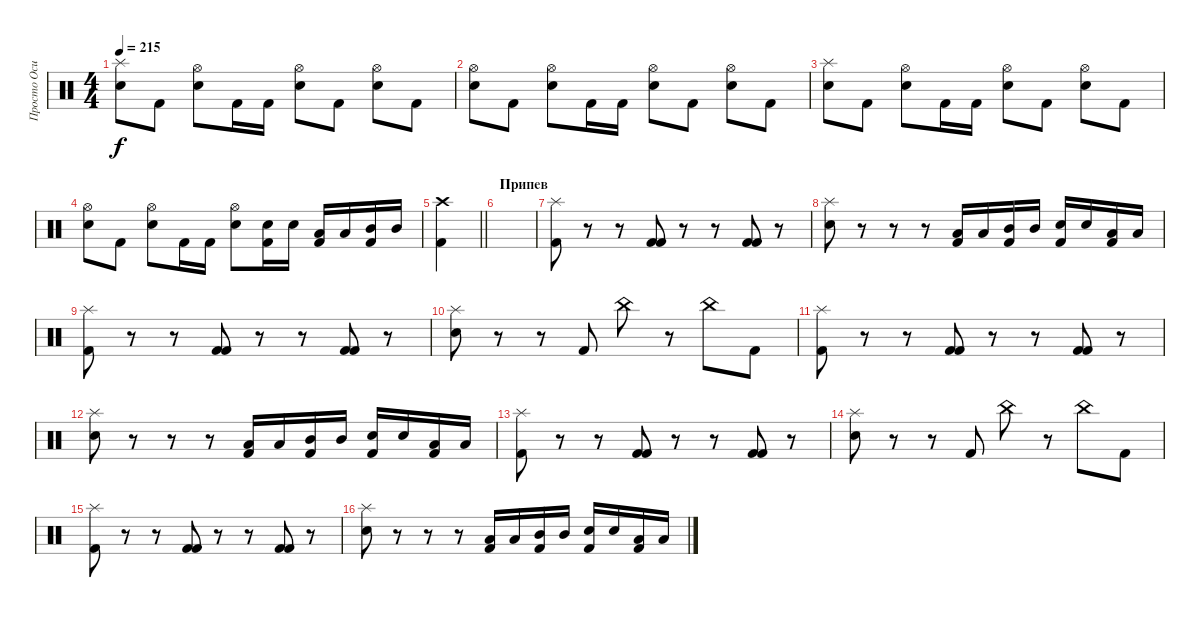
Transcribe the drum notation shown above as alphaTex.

\track ("Просто Осип" "Просто Оси") {instrument percussion}
\staff {score}
\articulation defaults
\ts (4 4)
\tempo 215
\clef neutral
\ks c
("Electric Snare (hit)" "Splash (hit)").8{dy f} "Kick (hit) 2".8 ("Electric Snare (hit)" "Hi-Hat (open)").8 "Kick (hit) 2".16 "Kick (hit) 2".16 ("Electric Snare (hit)" "Hi-Hat (open)").8 "Kick (hit) 2".8 ("Electric Snare (hit)" "Hi-Hat (open)").8 "Kick (hit) 2".8 |
("Electric Snare (hit)" "Hi-Hat (open)").8 "Kick (hit) 2".8 ("Electric Snare (hit)" "Hi-Hat (open)").8 "Kick (hit) 2".16 "Kick (hit) 2".16 ("Electric Snare (hit)" "Hi-Hat (open)").8 "Kick (hit) 2".8 ("Electric Snare (hit)" "Hi-Hat (open)").8 "Kick (hit) 2".8 |
("Electric Snare (hit)" "Splash (hit)").8 "Kick (hit) 2".8 ("Electric Snare (hit)" "Hi-Hat (open)").8 "Kick (hit) 2".16 "Kick (hit) 2".16 ("Electric Snare (hit)" "Hi-Hat (open)").8 "Kick (hit) 2".8 ("Electric Snare (hit)" "Hi-Hat (open)").8 "Kick (hit) 2".8 |
("Electric Snare (hit)" "Hi-Hat (open)").8 "Kick (hit) 2".8 ("Electric Snare (hit)" "Hi-Hat (open)").8 "Kick (hit) 2".16 "Kick (hit) 2".16 ("Electric Snare (hit)" "Hi-Hat (open)").8 ("Kick (hit) 2" "Electric Snare (hit)").16 "Electric Snare (hit)".16 ("Kick (hit) 2" "Low Tom (hit)").16 "Low Tom (hit)".16 ("Kick (hit) 2" "Mid Tom (hit)").16 "Mid Tom (hit)".16 |
\barLineRight lightlight
("Crash high (hit)" "Kick (hit) 2").4 |
\section ("" "Припев")
|
("Kick (hit) 2" "Splash (hit)").8 r.8 r.8 ("Kick (hit) 2" "Kick (hit) 2").8 r.8 r.8 ("Kick (hit) 2" "Kick (hit) 2").8 r.8 |
("Splash (hit)" "Electric Snare (hit)").8 r.8 r.8 r.8 ("Kick (hit) 2" "Low Tom (hit)").16 "Low Tom (hit)".16 ("Kick (hit) 2" "Mid Tom (hit)").16 "Mid Tom (hit)".16 ("Kick (hit) 2" "Electric Snare (hit)").16 "Electric Snare (hit)".16 ("Kick (hit) 2" "Low Tom (hit)").16 "Low Tom (hit)".16 |
("Kick (hit) 2" "Splash (hit)").8 r.8 r.8 ("Kick (hit) 2" "Kick (hit) 2").8 r.8 r.8 ("Kick (hit) 2" "Kick (hit) 2").8 r.8 |
("Splash (hit)" "Electric Snare (hit)").8 r.8 r.8 "Kick (hit) 2".8 "China (hit)".8 r.8 "China (hit)".8 "Kick (hit) 2".8 |
("Kick (hit) 2" "Splash (hit)").8 r.8 r.8 ("Kick (hit) 2" "Kick (hit) 2").8 r.8 r.8 ("Kick (hit) 2" "Kick (hit) 2").8 r.8 |
("Splash (hit)" "Electric Snare (hit)").8 r.8 r.8 r.8 ("Kick (hit) 2" "Low Tom (hit)").16 "Low Tom (hit)".16 ("Kick (hit) 2" "Mid Tom (hit)").16 "Mid Tom (hit)".16 ("Kick (hit) 2" "Electric Snare (hit)").16 "Electric Snare (hit)".16 ("Kick (hit) 2" "Low Tom (hit)").16 "Low Tom (hit)".16 |
("Kick (hit) 2" "Splash (hit)").8 r.8 r.8 ("Kick (hit) 2" "Kick (hit) 2").8 r.8 r.8 ("Kick (hit) 2" "Kick (hit) 2").8 r.8 |
("Splash (hit)" "Electric Snare (hit)").8 r.8 r.8 "Kick (hit) 2".8 "China (hit)".8 r.8 "China (hit)".8 "Kick (hit) 2".8 |
("Kick (hit) 2" "Splash (hit)").8 r.8 r.8 ("Kick (hit) 2" "Kick (hit) 2").8 r.8 r.8 ("Kick (hit) 2" "Kick (hit) 2").8 r.8 |
("Splash (hit)" "Electric Snare (hit)").8 r.8 r.8 r.8 ("Kick (hit) 2" "Low Tom (hit)").16 "Low Tom (hit)".16 ("Kick (hit) 2" "Mid Tom (hit)").16 "Mid Tom (hit)".16 ("Kick (hit) 2" "Electric Snare (hit)").16 "Electric Snare (hit)".16 ("Kick (hit) 2" "Low Tom (hit)").16 "Low Tom (hit)".16
